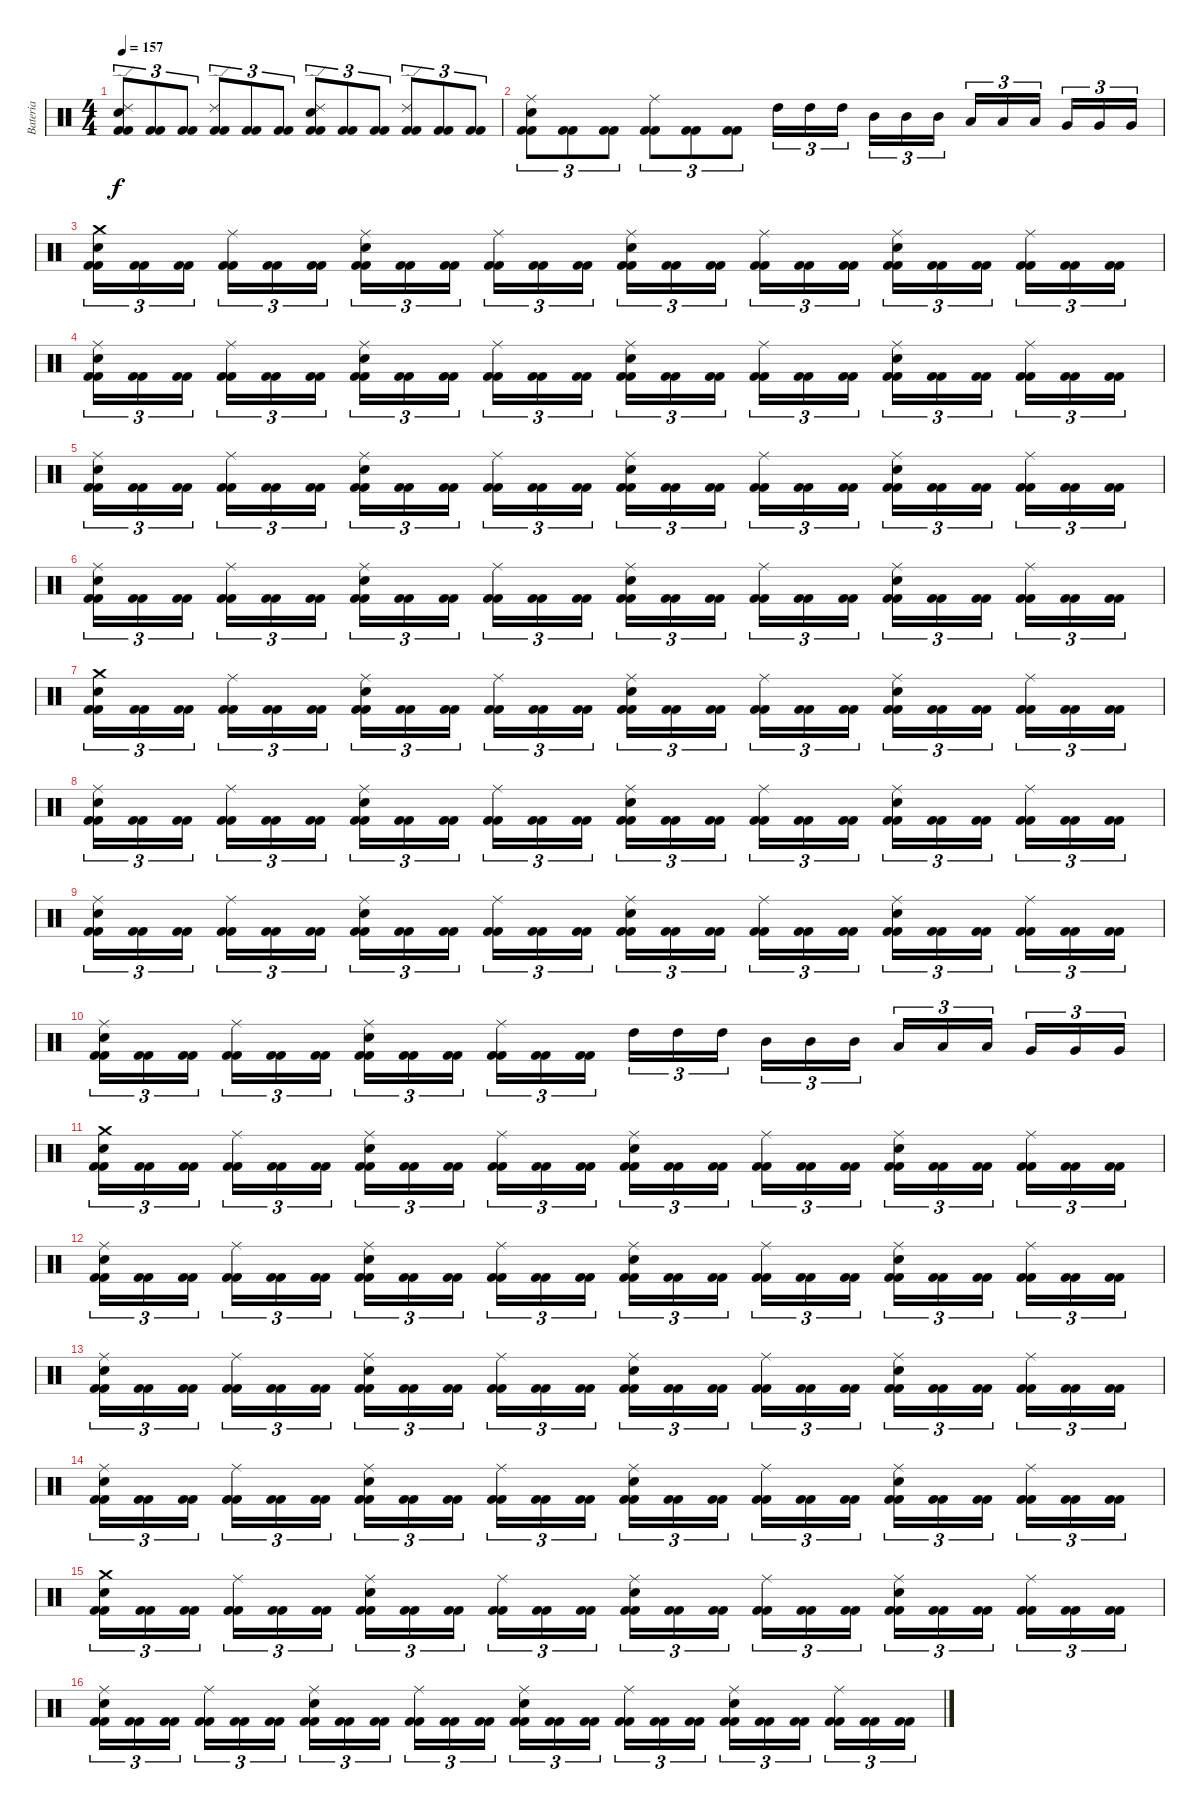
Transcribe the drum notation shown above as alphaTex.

\track ("Bateria" "Bateria") {instrument percussion}
\staff {score}
\articulation defaults
\ts (4 4)
\tempo 157
\clef neutral
\ks c
("Kick (hit) 2" "Kick (hit) 2" "Snare (hit) 2" "Ride (edge) 2").8{tu (3 2) dy f} ("Kick (hit) 2" "Kick (hit) 2").8{tu (3 2)} ("Kick (hit) 2" "Kick (hit) 2").8{tu (3 2)} ("Kick (hit) 2" "Kick (hit) 2" "Ride (edge) 2").8{tu (3 2)} ("Kick (hit) 2" "Kick (hit) 2").8{tu (3 2)} ("Kick (hit) 2" "Kick (hit) 2").8{tu (3 2)} ("Kick (hit) 2" "Kick (hit) 2" "Snare (hit) 2" "Ride (edge) 2").8{tu (3 2)} ("Kick (hit) 2" "Kick (hit) 2").8{tu (3 2)} ("Kick (hit) 2" "Kick (hit) 2").8{tu (3 2)} ("Kick (hit) 2" "Kick (hit) 2" "Ride (edge) 2").8{tu (3 2)} ("Kick (hit) 2" "Kick (hit) 2").8{tu (3 2)} ("Kick (hit) 2" "Kick (hit) 2").8{tu (3 2)} |
("Kick (hit) 2" "Kick (hit) 2" "Snare (hit) 2" "Ride (middle)").8{tu (3 2)} ("Kick (hit) 2" "Kick (hit) 2").8{tu (3 2)} ("Kick (hit) 2" "Kick (hit) 2").8{tu (3 2)} ("Kick (hit) 2" "Kick (hit) 2" "Ride (middle)").8{tu (3 2)} ("Kick (hit) 2" "Kick (hit) 2").8{tu (3 2)} ("Kick (hit) 2" "Kick (hit) 2").8{tu (3 2)} "High Tom (hit)".16{tu (3 2)} "High Tom (hit)".16{tu (3 2)} "High Tom (hit)".16{tu (3 2)} "Mid Tom (hit)".16{tu (3 2)} "Mid Tom (hit)".16{tu (3 2)} "Mid Tom (hit)".16{tu (3 2)} "Low Tom (hit)".16{tu (3 2)} "Low Tom (hit)".16{tu (3 2)} "Low Tom (hit)".16{tu (3 2)} "Very Low Tom (hit)".16{tu (3 2)} "Very Low Tom (hit)".16{tu (3 2)} "Very Low Tom (hit)".16{tu (3 2)} |
("Kick (hit) 2" "Kick (hit) 2" "Snare (hit) 2" "Crash medium (hit)").16{tu (3 2)} ("Kick (hit) 2" "Kick (hit) 2").16{tu (3 2)} ("Kick (hit) 2" "Kick (hit) 2").16{tu (3 2)} ("Kick (hit) 2" "Kick (hit) 2" "Ride (middle)").16{tu (3 2)} ("Kick (hit) 2" "Kick (hit) 2").16{tu (3 2)} ("Kick (hit) 2" "Kick (hit) 2").16{tu (3 2)} ("Kick (hit) 2" "Kick (hit) 2" "Snare (hit) 2" "Ride (middle)").16{tu (3 2)} ("Kick (hit) 2" "Kick (hit) 2").16{tu (3 2)} ("Kick (hit) 2" "Kick (hit) 2").16{tu (3 2)} ("Kick (hit) 2" "Kick (hit) 2" "Ride (middle)").16{tu (3 2)} ("Kick (hit) 2" "Kick (hit) 2").16{tu (3 2)} ("Kick (hit) 2" "Kick (hit) 2").16{tu (3 2)} ("Kick (hit) 2" "Kick (hit) 2" "Snare (hit) 2" "Ride (middle)").16{tu (3 2)} ("Kick (hit) 2" "Kick (hit) 2").16{tu (3 2)} ("Kick (hit) 2" "Kick (hit) 2").16{tu (3 2)} ("Kick (hit) 2" "Kick (hit) 2" "Ride (middle)").16{tu (3 2)} ("Kick (hit) 2" "Kick (hit) 2").16{tu (3 2)} ("Kick (hit) 2" "Kick (hit) 2").16{tu (3 2)} ("Kick (hit) 2" "Kick (hit) 2" "Snare (hit) 2" "Ride (middle)").16{tu (3 2)} ("Kick (hit) 2" "Kick (hit) 2").16{tu (3 2)} ("Kick (hit) 2" "Kick (hit) 2").16{tu (3 2)} ("Kick (hit) 2" "Kick (hit) 2" "Ride (middle)").16{tu (3 2)} ("Kick (hit) 2" "Kick (hit) 2").16{tu (3 2)} ("Kick (hit) 2" "Kick (hit) 2").16{tu (3 2)} |
("Kick (hit) 2" "Kick (hit) 2" "Snare (hit) 2" "Ride (middle)").16{tu (3 2)} ("Kick (hit) 2" "Kick (hit) 2").16{tu (3 2)} ("Kick (hit) 2" "Kick (hit) 2").16{tu (3 2)} ("Kick (hit) 2" "Kick (hit) 2" "Ride (middle)").16{tu (3 2)} ("Kick (hit) 2" "Kick (hit) 2").16{tu (3 2)} ("Kick (hit) 2" "Kick (hit) 2").16{tu (3 2)} ("Kick (hit) 2" "Kick (hit) 2" "Snare (hit) 2" "Ride (middle)").16{tu (3 2)} ("Kick (hit) 2" "Kick (hit) 2").16{tu (3 2)} ("Kick (hit) 2" "Kick (hit) 2").16{tu (3 2)} ("Kick (hit) 2" "Kick (hit) 2" "Ride (middle)").16{tu (3 2)} ("Kick (hit) 2" "Kick (hit) 2").16{tu (3 2)} ("Kick (hit) 2" "Kick (hit) 2").16{tu (3 2)} ("Kick (hit) 2" "Kick (hit) 2" "Snare (hit) 2" "Ride (middle)").16{tu (3 2)} ("Kick (hit) 2" "Kick (hit) 2").16{tu (3 2)} ("Kick (hit) 2" "Kick (hit) 2").16{tu (3 2)} ("Kick (hit) 2" "Kick (hit) 2" "Ride (middle)").16{tu (3 2)} ("Kick (hit) 2" "Kick (hit) 2").16{tu (3 2)} ("Kick (hit) 2" "Kick (hit) 2").16{tu (3 2)} ("Kick (hit) 2" "Kick (hit) 2" "Snare (hit) 2" "Ride (middle)").16{tu (3 2)} ("Kick (hit) 2" "Kick (hit) 2").16{tu (3 2)} ("Kick (hit) 2" "Kick (hit) 2").16{tu (3 2)} ("Kick (hit) 2" "Kick (hit) 2" "Ride (middle)").16{tu (3 2)} ("Kick (hit) 2" "Kick (hit) 2").16{tu (3 2)} ("Kick (hit) 2" "Kick (hit) 2").16{tu (3 2)} |
("Kick (hit) 2" "Kick (hit) 2" "Snare (hit) 2" "Ride (middle)").16{tu (3 2)} ("Kick (hit) 2" "Kick (hit) 2").16{tu (3 2)} ("Kick (hit) 2" "Kick (hit) 2").16{tu (3 2)} ("Kick (hit) 2" "Kick (hit) 2" "Ride (middle)").16{tu (3 2)} ("Kick (hit) 2" "Kick (hit) 2").16{tu (3 2)} ("Kick (hit) 2" "Kick (hit) 2").16{tu (3 2)} ("Kick (hit) 2" "Kick (hit) 2" "Snare (hit) 2" "Ride (middle)").16{tu (3 2)} ("Kick (hit) 2" "Kick (hit) 2").16{tu (3 2)} ("Kick (hit) 2" "Kick (hit) 2").16{tu (3 2)} ("Kick (hit) 2" "Kick (hit) 2" "Ride (middle)").16{tu (3 2)} ("Kick (hit) 2" "Kick (hit) 2").16{tu (3 2)} ("Kick (hit) 2" "Kick (hit) 2").16{tu (3 2)} ("Kick (hit) 2" "Kick (hit) 2" "Snare (hit) 2" "Ride (middle)").16{tu (3 2)} ("Kick (hit) 2" "Kick (hit) 2").16{tu (3 2)} ("Kick (hit) 2" "Kick (hit) 2").16{tu (3 2)} ("Kick (hit) 2" "Kick (hit) 2" "Ride (middle)").16{tu (3 2)} ("Kick (hit) 2" "Kick (hit) 2").16{tu (3 2)} ("Kick (hit) 2" "Kick (hit) 2").16{tu (3 2)} ("Kick (hit) 2" "Kick (hit) 2" "Snare (hit) 2" "Ride (middle)").16{tu (3 2)} ("Kick (hit) 2" "Kick (hit) 2").16{tu (3 2)} ("Kick (hit) 2" "Kick (hit) 2").16{tu (3 2)} ("Kick (hit) 2" "Kick (hit) 2" "Ride (middle)").16{tu (3 2)} ("Kick (hit) 2" "Kick (hit) 2").16{tu (3 2)} ("Kick (hit) 2" "Kick (hit) 2").16{tu (3 2)} |
("Kick (hit) 2" "Kick (hit) 2" "Snare (hit) 2" "Ride (middle)").16{tu (3 2)} ("Kick (hit) 2" "Kick (hit) 2").16{tu (3 2)} ("Kick (hit) 2" "Kick (hit) 2").16{tu (3 2)} ("Kick (hit) 2" "Kick (hit) 2" "Ride (middle)").16{tu (3 2)} ("Kick (hit) 2" "Kick (hit) 2").16{tu (3 2)} ("Kick (hit) 2" "Kick (hit) 2").16{tu (3 2)} ("Kick (hit) 2" "Kick (hit) 2" "Snare (hit) 2" "Ride (middle)").16{tu (3 2)} ("Kick (hit) 2" "Kick (hit) 2").16{tu (3 2)} ("Kick (hit) 2" "Kick (hit) 2").16{tu (3 2)} ("Kick (hit) 2" "Kick (hit) 2" "Ride (middle)").16{tu (3 2)} ("Kick (hit) 2" "Kick (hit) 2").16{tu (3 2)} ("Kick (hit) 2" "Kick (hit) 2").16{tu (3 2)} ("Kick (hit) 2" "Kick (hit) 2" "Snare (hit) 2" "Ride (middle)").16{tu (3 2)} ("Kick (hit) 2" "Kick (hit) 2").16{tu (3 2)} ("Kick (hit) 2" "Kick (hit) 2").16{tu (3 2)} ("Kick (hit) 2" "Kick (hit) 2" "Ride (middle)").16{tu (3 2)} ("Kick (hit) 2" "Kick (hit) 2").16{tu (3 2)} ("Kick (hit) 2" "Kick (hit) 2").16{tu (3 2)} ("Kick (hit) 2" "Kick (hit) 2" "Snare (hit) 2" "Ride (middle)").16{tu (3 2)} ("Kick (hit) 2" "Kick (hit) 2").16{tu (3 2)} ("Kick (hit) 2" "Kick (hit) 2").16{tu (3 2)} ("Kick (hit) 2" "Kick (hit) 2" "Ride (middle)").16{tu (3 2)} ("Kick (hit) 2" "Kick (hit) 2").16{tu (3 2)} ("Kick (hit) 2" "Kick (hit) 2").16{tu (3 2)} |
("Kick (hit) 2" "Kick (hit) 2" "Snare (hit) 2" "Crash medium (hit)").16{tu (3 2)} ("Kick (hit) 2" "Kick (hit) 2").16{tu (3 2)} ("Kick (hit) 2" "Kick (hit) 2").16{tu (3 2)} ("Kick (hit) 2" "Kick (hit) 2" "Ride (middle)").16{tu (3 2)} ("Kick (hit) 2" "Kick (hit) 2").16{tu (3 2)} ("Kick (hit) 2" "Kick (hit) 2").16{tu (3 2)} ("Kick (hit) 2" "Kick (hit) 2" "Snare (hit) 2" "Ride (middle)").16{tu (3 2)} ("Kick (hit) 2" "Kick (hit) 2").16{tu (3 2)} ("Kick (hit) 2" "Kick (hit) 2").16{tu (3 2)} ("Kick (hit) 2" "Kick (hit) 2" "Ride (middle)").16{tu (3 2)} ("Kick (hit) 2" "Kick (hit) 2").16{tu (3 2)} ("Kick (hit) 2" "Kick (hit) 2").16{tu (3 2)} ("Kick (hit) 2" "Kick (hit) 2" "Snare (hit) 2" "Ride (middle)").16{tu (3 2)} ("Kick (hit) 2" "Kick (hit) 2").16{tu (3 2)} ("Kick (hit) 2" "Kick (hit) 2").16{tu (3 2)} ("Kick (hit) 2" "Kick (hit) 2" "Ride (middle)").16{tu (3 2)} ("Kick (hit) 2" "Kick (hit) 2").16{tu (3 2)} ("Kick (hit) 2" "Kick (hit) 2").16{tu (3 2)} ("Kick (hit) 2" "Kick (hit) 2" "Snare (hit) 2" "Ride (middle)").16{tu (3 2)} ("Kick (hit) 2" "Kick (hit) 2").16{tu (3 2)} ("Kick (hit) 2" "Kick (hit) 2").16{tu (3 2)} ("Kick (hit) 2" "Kick (hit) 2" "Ride (middle)").16{tu (3 2)} ("Kick (hit) 2" "Kick (hit) 2").16{tu (3 2)} ("Kick (hit) 2" "Kick (hit) 2").16{tu (3 2)} |
("Kick (hit) 2" "Kick (hit) 2" "Snare (hit) 2" "Ride (middle)").16{tu (3 2)} ("Kick (hit) 2" "Kick (hit) 2").16{tu (3 2)} ("Kick (hit) 2" "Kick (hit) 2").16{tu (3 2)} ("Kick (hit) 2" "Kick (hit) 2" "Ride (middle)").16{tu (3 2)} ("Kick (hit) 2" "Kick (hit) 2").16{tu (3 2)} ("Kick (hit) 2" "Kick (hit) 2").16{tu (3 2)} ("Kick (hit) 2" "Kick (hit) 2" "Snare (hit) 2" "Ride (middle)").16{tu (3 2)} ("Kick (hit) 2" "Kick (hit) 2").16{tu (3 2)} ("Kick (hit) 2" "Kick (hit) 2").16{tu (3 2)} ("Kick (hit) 2" "Kick (hit) 2" "Ride (middle)").16{tu (3 2)} ("Kick (hit) 2" "Kick (hit) 2").16{tu (3 2)} ("Kick (hit) 2" "Kick (hit) 2").16{tu (3 2)} ("Kick (hit) 2" "Kick (hit) 2" "Snare (hit) 2" "Ride (middle)").16{tu (3 2)} ("Kick (hit) 2" "Kick (hit) 2").16{tu (3 2)} ("Kick (hit) 2" "Kick (hit) 2").16{tu (3 2)} ("Kick (hit) 2" "Kick (hit) 2" "Ride (middle)").16{tu (3 2)} ("Kick (hit) 2" "Kick (hit) 2").16{tu (3 2)} ("Kick (hit) 2" "Kick (hit) 2").16{tu (3 2)} ("Kick (hit) 2" "Kick (hit) 2" "Snare (hit) 2" "Ride (middle)").16{tu (3 2)} ("Kick (hit) 2" "Kick (hit) 2").16{tu (3 2)} ("Kick (hit) 2" "Kick (hit) 2").16{tu (3 2)} ("Kick (hit) 2" "Kick (hit) 2" "Ride (middle)").16{tu (3 2)} ("Kick (hit) 2" "Kick (hit) 2").16{tu (3 2)} ("Kick (hit) 2" "Kick (hit) 2").16{tu (3 2)} |
("Kick (hit) 2" "Kick (hit) 2" "Snare (hit) 2" "Ride (middle)").16{tu (3 2)} ("Kick (hit) 2" "Kick (hit) 2").16{tu (3 2)} ("Kick (hit) 2" "Kick (hit) 2").16{tu (3 2)} ("Kick (hit) 2" "Kick (hit) 2" "Ride (middle)").16{tu (3 2)} ("Kick (hit) 2" "Kick (hit) 2").16{tu (3 2)} ("Kick (hit) 2" "Kick (hit) 2").16{tu (3 2)} ("Kick (hit) 2" "Kick (hit) 2" "Snare (hit) 2" "Ride (middle)").16{tu (3 2)} ("Kick (hit) 2" "Kick (hit) 2").16{tu (3 2)} ("Kick (hit) 2" "Kick (hit) 2").16{tu (3 2)} ("Kick (hit) 2" "Kick (hit) 2" "Ride (middle)").16{tu (3 2)} ("Kick (hit) 2" "Kick (hit) 2").16{tu (3 2)} ("Kick (hit) 2" "Kick (hit) 2").16{tu (3 2)} ("Kick (hit) 2" "Kick (hit) 2" "Snare (hit) 2" "Ride (middle)").16{tu (3 2)} ("Kick (hit) 2" "Kick (hit) 2").16{tu (3 2)} ("Kick (hit) 2" "Kick (hit) 2").16{tu (3 2)} ("Kick (hit) 2" "Kick (hit) 2" "Ride (middle)").16{tu (3 2)} ("Kick (hit) 2" "Kick (hit) 2").16{tu (3 2)} ("Kick (hit) 2" "Kick (hit) 2").16{tu (3 2)} ("Kick (hit) 2" "Kick (hit) 2" "Snare (hit) 2" "Ride (middle)").16{tu (3 2)} ("Kick (hit) 2" "Kick (hit) 2").16{tu (3 2)} ("Kick (hit) 2" "Kick (hit) 2").16{tu (3 2)} ("Kick (hit) 2" "Kick (hit) 2" "Ride (middle)").16{tu (3 2)} ("Kick (hit) 2" "Kick (hit) 2").16{tu (3 2)} ("Kick (hit) 2" "Kick (hit) 2").16{tu (3 2)} |
("Kick (hit) 2" "Kick (hit) 2" "Snare (hit) 2" "Ride (middle)").16{tu (3 2)} ("Kick (hit) 2" "Kick (hit) 2").16{tu (3 2)} ("Kick (hit) 2" "Kick (hit) 2").16{tu (3 2)} ("Kick (hit) 2" "Kick (hit) 2" "Ride (middle)").16{tu (3 2)} ("Kick (hit) 2" "Kick (hit) 2").16{tu (3 2)} ("Kick (hit) 2" "Kick (hit) 2").16{tu (3 2)} ("Kick (hit) 2" "Kick (hit) 2" "Snare (hit) 2" "Ride (middle)").16{tu (3 2)} ("Kick (hit) 2" "Kick (hit) 2").16{tu (3 2)} ("Kick (hit) 2" "Kick (hit) 2").16{tu (3 2)} ("Kick (hit) 2" "Kick (hit) 2" "Ride (middle)").16{tu (3 2)} ("Kick (hit) 2" "Kick (hit) 2").16{tu (3 2)} ("Kick (hit) 2" "Kick (hit) 2").16{tu (3 2)} "High Tom (hit)".16{tu (3 2)} "High Tom (hit)".16{tu (3 2)} "High Tom (hit)".16{tu (3 2)} "Mid Tom (hit)".16{tu (3 2)} "Mid Tom (hit)".16{tu (3 2)} "Mid Tom (hit)".16{tu (3 2)} "Low Tom (hit)".16{tu (3 2)} "Low Tom (hit)".16{tu (3 2)} "Low Tom (hit)".16{tu (3 2)} "Very Low Tom (hit)".16{tu (3 2)} "Very Low Tom (hit)".16{tu (3 2)} "Very Low Tom (hit)".16{tu (3 2)} |
("Kick (hit) 2" "Kick (hit) 2" "Snare (hit) 2" "Crash medium (hit)").16{tu (3 2)} ("Kick (hit) 2" "Kick (hit) 2").16{tu (3 2)} ("Kick (hit) 2" "Kick (hit) 2").16{tu (3 2)} ("Kick (hit) 2" "Kick (hit) 2" "Ride (middle)").16{tu (3 2)} ("Kick (hit) 2" "Kick (hit) 2").16{tu (3 2)} ("Kick (hit) 2" "Kick (hit) 2").16{tu (3 2)} ("Kick (hit) 2" "Kick (hit) 2" "Snare (hit) 2" "Ride (middle)").16{tu (3 2)} ("Kick (hit) 2" "Kick (hit) 2").16{tu (3 2)} ("Kick (hit) 2" "Kick (hit) 2").16{tu (3 2)} ("Kick (hit) 2" "Kick (hit) 2" "Ride (middle)").16{tu (3 2)} ("Kick (hit) 2" "Kick (hit) 2").16{tu (3 2)} ("Kick (hit) 2" "Kick (hit) 2").16{tu (3 2)} ("Kick (hit) 2" "Kick (hit) 2" "Snare (hit) 2" "Ride (middle)").16{tu (3 2)} ("Kick (hit) 2" "Kick (hit) 2").16{tu (3 2)} ("Kick (hit) 2" "Kick (hit) 2").16{tu (3 2)} ("Kick (hit) 2" "Kick (hit) 2" "Ride (middle)").16{tu (3 2)} ("Kick (hit) 2" "Kick (hit) 2").16{tu (3 2)} ("Kick (hit) 2" "Kick (hit) 2").16{tu (3 2)} ("Kick (hit) 2" "Kick (hit) 2" "Snare (hit) 2" "Ride (middle)").16{tu (3 2)} ("Kick (hit) 2" "Kick (hit) 2").16{tu (3 2)} ("Kick (hit) 2" "Kick (hit) 2").16{tu (3 2)} ("Kick (hit) 2" "Kick (hit) 2" "Ride (middle)").16{tu (3 2)} ("Kick (hit) 2" "Kick (hit) 2").16{tu (3 2)} ("Kick (hit) 2" "Kick (hit) 2").16{tu (3 2)} |
("Kick (hit) 2" "Kick (hit) 2" "Snare (hit) 2" "Ride (middle)").16{tu (3 2)} ("Kick (hit) 2" "Kick (hit) 2").16{tu (3 2)} ("Kick (hit) 2" "Kick (hit) 2").16{tu (3 2)} ("Kick (hit) 2" "Kick (hit) 2" "Ride (middle)").16{tu (3 2)} ("Kick (hit) 2" "Kick (hit) 2").16{tu (3 2)} ("Kick (hit) 2" "Kick (hit) 2").16{tu (3 2)} ("Kick (hit) 2" "Kick (hit) 2" "Snare (hit) 2" "Ride (middle)").16{tu (3 2)} ("Kick (hit) 2" "Kick (hit) 2").16{tu (3 2)} ("Kick (hit) 2" "Kick (hit) 2").16{tu (3 2)} ("Kick (hit) 2" "Kick (hit) 2" "Ride (middle)").16{tu (3 2)} ("Kick (hit) 2" "Kick (hit) 2").16{tu (3 2)} ("Kick (hit) 2" "Kick (hit) 2").16{tu (3 2)} ("Kick (hit) 2" "Kick (hit) 2" "Snare (hit) 2" "Ride (middle)").16{tu (3 2)} ("Kick (hit) 2" "Kick (hit) 2").16{tu (3 2)} ("Kick (hit) 2" "Kick (hit) 2").16{tu (3 2)} ("Kick (hit) 2" "Kick (hit) 2" "Ride (middle)").16{tu (3 2)} ("Kick (hit) 2" "Kick (hit) 2").16{tu (3 2)} ("Kick (hit) 2" "Kick (hit) 2").16{tu (3 2)} ("Kick (hit) 2" "Kick (hit) 2" "Snare (hit) 2" "Ride (middle)").16{tu (3 2)} ("Kick (hit) 2" "Kick (hit) 2").16{tu (3 2)} ("Kick (hit) 2" "Kick (hit) 2").16{tu (3 2)} ("Kick (hit) 2" "Kick (hit) 2" "Ride (middle)").16{tu (3 2)} ("Kick (hit) 2" "Kick (hit) 2").16{tu (3 2)} ("Kick (hit) 2" "Kick (hit) 2").16{tu (3 2)} |
("Kick (hit) 2" "Kick (hit) 2" "Snare (hit) 2" "Ride (middle)").16{tu (3 2)} ("Kick (hit) 2" "Kick (hit) 2").16{tu (3 2)} ("Kick (hit) 2" "Kick (hit) 2").16{tu (3 2)} ("Kick (hit) 2" "Kick (hit) 2" "Ride (middle)").16{tu (3 2)} ("Kick (hit) 2" "Kick (hit) 2").16{tu (3 2)} ("Kick (hit) 2" "Kick (hit) 2").16{tu (3 2)} ("Kick (hit) 2" "Kick (hit) 2" "Snare (hit) 2" "Ride (middle)").16{tu (3 2)} ("Kick (hit) 2" "Kick (hit) 2").16{tu (3 2)} ("Kick (hit) 2" "Kick (hit) 2").16{tu (3 2)} ("Kick (hit) 2" "Kick (hit) 2" "Ride (middle)").16{tu (3 2)} ("Kick (hit) 2" "Kick (hit) 2").16{tu (3 2)} ("Kick (hit) 2" "Kick (hit) 2").16{tu (3 2)} ("Kick (hit) 2" "Kick (hit) 2" "Snare (hit) 2" "Ride (middle)").16{tu (3 2)} ("Kick (hit) 2" "Kick (hit) 2").16{tu (3 2)} ("Kick (hit) 2" "Kick (hit) 2").16{tu (3 2)} ("Kick (hit) 2" "Kick (hit) 2" "Ride (middle)").16{tu (3 2)} ("Kick (hit) 2" "Kick (hit) 2").16{tu (3 2)} ("Kick (hit) 2" "Kick (hit) 2").16{tu (3 2)} ("Kick (hit) 2" "Kick (hit) 2" "Snare (hit) 2" "Ride (middle)").16{tu (3 2)} ("Kick (hit) 2" "Kick (hit) 2").16{tu (3 2)} ("Kick (hit) 2" "Kick (hit) 2").16{tu (3 2)} ("Kick (hit) 2" "Kick (hit) 2" "Ride (middle)").16{tu (3 2)} ("Kick (hit) 2" "Kick (hit) 2").16{tu (3 2)} ("Kick (hit) 2" "Kick (hit) 2").16{tu (3 2)} |
("Kick (hit) 2" "Kick (hit) 2" "Snare (hit) 2" "Ride (middle)").16{tu (3 2)} ("Kick (hit) 2" "Kick (hit) 2").16{tu (3 2)} ("Kick (hit) 2" "Kick (hit) 2").16{tu (3 2)} ("Kick (hit) 2" "Kick (hit) 2" "Ride (middle)").16{tu (3 2)} ("Kick (hit) 2" "Kick (hit) 2").16{tu (3 2)} ("Kick (hit) 2" "Kick (hit) 2").16{tu (3 2)} ("Kick (hit) 2" "Kick (hit) 2" "Snare (hit) 2" "Ride (middle)").16{tu (3 2)} ("Kick (hit) 2" "Kick (hit) 2").16{tu (3 2)} ("Kick (hit) 2" "Kick (hit) 2").16{tu (3 2)} ("Kick (hit) 2" "Kick (hit) 2" "Ride (middle)").16{tu (3 2)} ("Kick (hit) 2" "Kick (hit) 2").16{tu (3 2)} ("Kick (hit) 2" "Kick (hit) 2").16{tu (3 2)} ("Kick (hit) 2" "Kick (hit) 2" "Snare (hit) 2" "Ride (middle)").16{tu (3 2)} ("Kick (hit) 2" "Kick (hit) 2").16{tu (3 2)} ("Kick (hit) 2" "Kick (hit) 2").16{tu (3 2)} ("Kick (hit) 2" "Kick (hit) 2" "Ride (middle)").16{tu (3 2)} ("Kick (hit) 2" "Kick (hit) 2").16{tu (3 2)} ("Kick (hit) 2" "Kick (hit) 2").16{tu (3 2)} ("Kick (hit) 2" "Kick (hit) 2" "Snare (hit) 2" "Ride (middle)").16{tu (3 2)} ("Kick (hit) 2" "Kick (hit) 2").16{tu (3 2)} ("Kick (hit) 2" "Kick (hit) 2").16{tu (3 2)} ("Kick (hit) 2" "Kick (hit) 2" "Ride (middle)").16{tu (3 2)} ("Kick (hit) 2" "Kick (hit) 2").16{tu (3 2)} ("Kick (hit) 2" "Kick (hit) 2").16{tu (3 2)} |
("Kick (hit) 2" "Kick (hit) 2" "Snare (hit) 2" "Crash medium (hit)").16{tu (3 2)} ("Kick (hit) 2" "Kick (hit) 2").16{tu (3 2)} ("Kick (hit) 2" "Kick (hit) 2").16{tu (3 2)} ("Kick (hit) 2" "Kick (hit) 2" "Ride (middle)").16{tu (3 2)} ("Kick (hit) 2" "Kick (hit) 2").16{tu (3 2)} ("Kick (hit) 2" "Kick (hit) 2").16{tu (3 2)} ("Kick (hit) 2" "Kick (hit) 2" "Snare (hit) 2" "Ride (middle)").16{tu (3 2)} ("Kick (hit) 2" "Kick (hit) 2").16{tu (3 2)} ("Kick (hit) 2" "Kick (hit) 2").16{tu (3 2)} ("Kick (hit) 2" "Kick (hit) 2" "Ride (middle)").16{tu (3 2)} ("Kick (hit) 2" "Kick (hit) 2").16{tu (3 2)} ("Kick (hit) 2" "Kick (hit) 2").16{tu (3 2)} ("Kick (hit) 2" "Kick (hit) 2" "Snare (hit) 2" "Ride (middle)").16{tu (3 2)} ("Kick (hit) 2" "Kick (hit) 2").16{tu (3 2)} ("Kick (hit) 2" "Kick (hit) 2").16{tu (3 2)} ("Kick (hit) 2" "Kick (hit) 2" "Ride (middle)").16{tu (3 2)} ("Kick (hit) 2" "Kick (hit) 2").16{tu (3 2)} ("Kick (hit) 2" "Kick (hit) 2").16{tu (3 2)} ("Kick (hit) 2" "Kick (hit) 2" "Snare (hit) 2" "Ride (middle)").16{tu (3 2)} ("Kick (hit) 2" "Kick (hit) 2").16{tu (3 2)} ("Kick (hit) 2" "Kick (hit) 2").16{tu (3 2)} ("Kick (hit) 2" "Kick (hit) 2" "Ride (middle)").16{tu (3 2)} ("Kick (hit) 2" "Kick (hit) 2").16{tu (3 2)} ("Kick (hit) 2" "Kick (hit) 2").16{tu (3 2)} |
("Kick (hit) 2" "Kick (hit) 2" "Snare (hit) 2" "Ride (middle)").16{tu (3 2)} ("Kick (hit) 2" "Kick (hit) 2").16{tu (3 2)} ("Kick (hit) 2" "Kick (hit) 2").16{tu (3 2)} ("Kick (hit) 2" "Kick (hit) 2" "Ride (middle)").16{tu (3 2)} ("Kick (hit) 2" "Kick (hit) 2").16{tu (3 2)} ("Kick (hit) 2" "Kick (hit) 2").16{tu (3 2)} ("Kick (hit) 2" "Kick (hit) 2" "Snare (hit) 2" "Ride (middle)").16{tu (3 2)} ("Kick (hit) 2" "Kick (hit) 2").16{tu (3 2)} ("Kick (hit) 2" "Kick (hit) 2").16{tu (3 2)} ("Kick (hit) 2" "Kick (hit) 2" "Ride (middle)").16{tu (3 2)} ("Kick (hit) 2" "Kick (hit) 2").16{tu (3 2)} ("Kick (hit) 2" "Kick (hit) 2").16{tu (3 2)} ("Kick (hit) 2" "Kick (hit) 2" "Snare (hit) 2" "Ride (middle)").16{tu (3 2)} ("Kick (hit) 2" "Kick (hit) 2").16{tu (3 2)} ("Kick (hit) 2" "Kick (hit) 2").16{tu (3 2)} ("Kick (hit) 2" "Kick (hit) 2" "Ride (middle)").16{tu (3 2)} ("Kick (hit) 2" "Kick (hit) 2").16{tu (3 2)} ("Kick (hit) 2" "Kick (hit) 2").16{tu (3 2)} ("Kick (hit) 2" "Kick (hit) 2" "Snare (hit) 2" "Ride (middle)").16{tu (3 2)} ("Kick (hit) 2" "Kick (hit) 2").16{tu (3 2)} ("Kick (hit) 2" "Kick (hit) 2").16{tu (3 2)} ("Kick (hit) 2" "Kick (hit) 2" "Ride (middle)").16{tu (3 2)} ("Kick (hit) 2" "Kick (hit) 2").16{tu (3 2)} ("Kick (hit) 2" "Kick (hit) 2").16{tu (3 2)}
